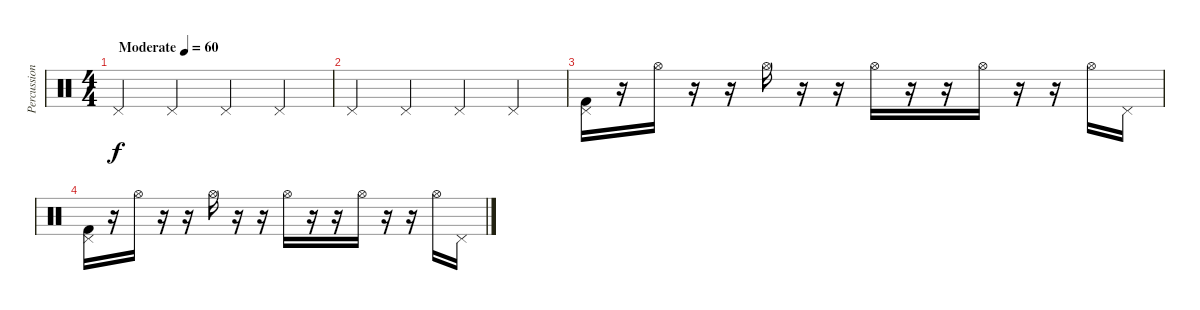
\track ("Percussion" "Percussion") {instrument percussion}
\staff {score}
\articulation defaults
\ts (4 4)
\tempo (60 "Moderate")
\clef neutral
\ks c "Pedal Hi-Hat (hit)".4{dy f} "Pedal Hi-Hat (hit)".4 "Pedal Hi-Hat (hit)".4 "Pedal Hi-Hat (hit)".4
|
"Pedal Hi-Hat (hit)".4 "Pedal Hi-Hat (hit)".4 "Pedal Hi-Hat (hit)".4 "Pedal Hi-Hat (hit)".4 |
("Pedal Hi-Hat (hit)" "Kick (hit) 2").16 r.16 "Hi-Hat (open)".16 r.16 r.16 "Hi-Hat (open)".16 r.16 r.16 "Hi-Hat (open)".16 r.16 r.16 "Hi-Hat (open)".16 r.16 r.16 "Hi-Hat (open)".16 "Pedal Hi-Hat (hit)".16 |
("Pedal Hi-Hat (hit)" "Kick (hit) 2").16 r.16 "Hi-Hat (open)".16 r.16 r.16 "Hi-Hat (open)".16 r.16 r.16 "Hi-Hat (open)".16 r.16 r.16 "Hi-Hat (open)".16 r.16 r.16 "Hi-Hat (open)".16 "Pedal Hi-Hat (hit)".16
